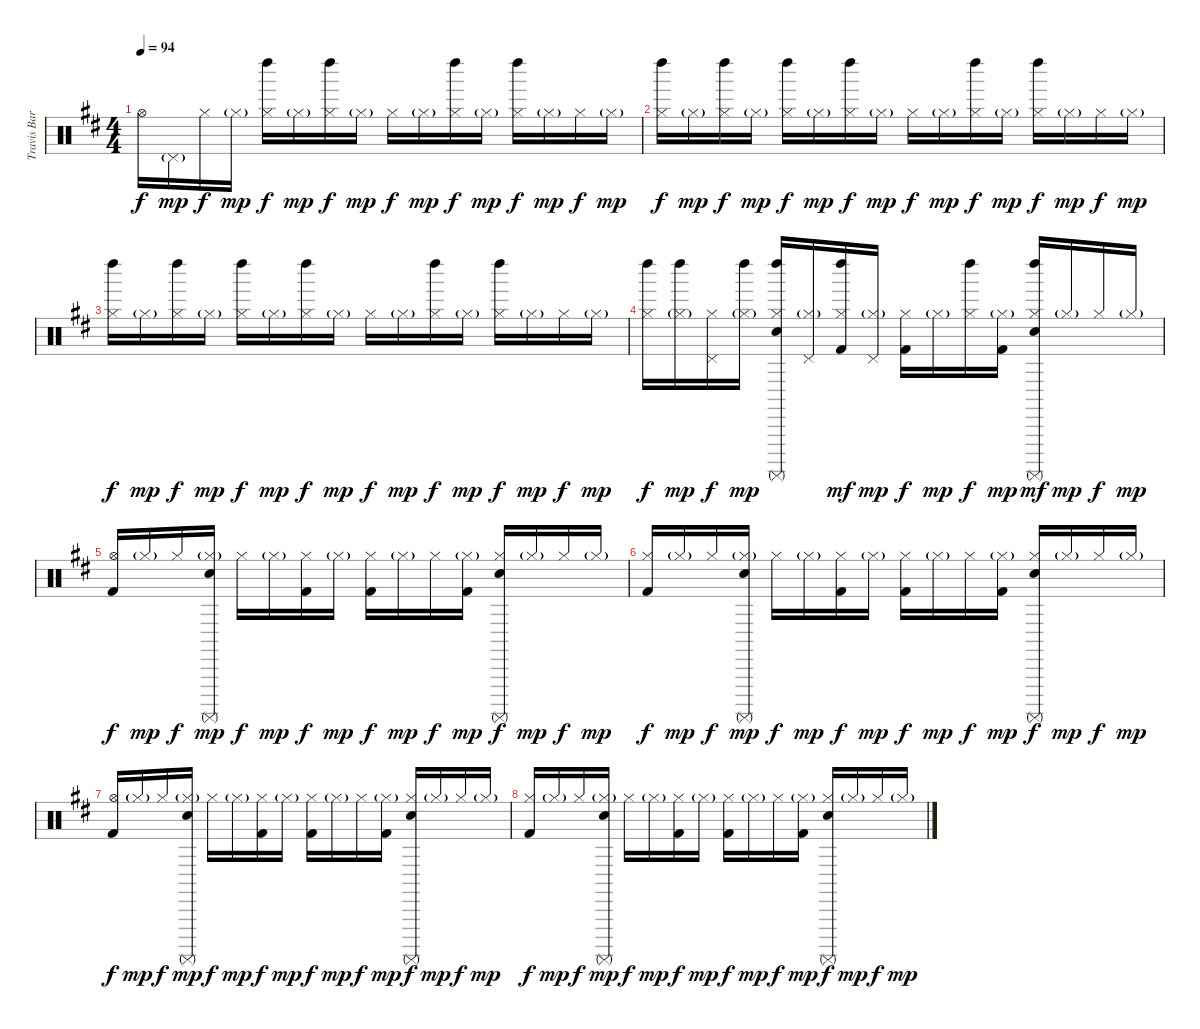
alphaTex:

\track ("Travis Barker" "Travis Bar") {instrument percussion}
\staff {score}
\articulation defaults
\ts (4 4)
\tempo 94
\clef neutral
\ks d "Hi-Hat (open)".16{dy f} "Pedal Hi-Hat (hit)"{g}.16{dy mp} "Hi-Hat (closed)".16{dy f} "Hi-Hat (closed)"{g}.16{dy mp}
("Left Maraca (hit)" "Hi-Hat (closed)").16{dy f} "Hi-Hat (closed)"{g}.16{dy mp} ("Left Maraca (hit)" "Hi-Hat (closed)").16{dy f} "Hi-Hat (closed)"{g}.16{dy mp} "Hi-Hat (closed)".16{dy f} "Hi-Hat (closed)"{g}.16{dy mp} ("Left Maraca (hit)" "Hi-Hat (closed)").16{dy f} "Hi-Hat (closed)"{g}.16{dy mp} ("Left Maraca (hit)" "Hi-Hat (closed)").16{dy f} "Hi-Hat (closed)"{g}.16{dy mp} "Hi-Hat (closed)".16{dy f} "Hi-Hat (closed)"{g}.16{dy mp} |
("Left Maraca (hit)" "Hi-Hat (closed)").16{dy f} "Hi-Hat (closed)"{g}.16{dy mp} ("Left Maraca (hit)" "Hi-Hat (closed)").16{dy f} "Hi-Hat (closed)"{g}.16{dy mp} ("Left Maraca (hit)" "Hi-Hat (closed)").16{dy f} "Hi-Hat (closed)"{g}.16{dy mp} ("Left Maraca (hit)" "Hi-Hat (closed)").16{dy f} "Hi-Hat (closed)"{g}.16{dy mp} "Hi-Hat (closed)".16{dy f} "Hi-Hat (closed)"{g}.16{dy mp} ("Left Maraca (hit)" "Hi-Hat (closed)").16{dy f} "Hi-Hat (closed)"{g}.16{dy mp} ("Left Maraca (hit)" "Hi-Hat (closed)").16{dy f} "Hi-Hat (closed)"{g}.16{dy mp} "Hi-Hat (closed)".16{dy f} "Hi-Hat (closed)"{g}.16{dy mp} |
("Left Maraca (hit)" "Hi-Hat (closed)").16{dy f} "Hi-Hat (closed)"{g}.16{dy mp} ("Left Maraca (hit)" "Hi-Hat (closed)").16{dy f} "Hi-Hat (closed)"{g}.16{dy mp} ("Left Maraca (hit)" "Hi-Hat (closed)").16{dy f} "Hi-Hat (closed)"{g}.16{dy mp} ("Left Maraca (hit)" "Hi-Hat (closed)").16{dy f} "Hi-Hat (closed)"{g}.16{dy mp} "Hi-Hat (closed)".16{dy f} "Hi-Hat (closed)"{g}.16{dy mp} ("Left Maraca (hit)" "Hi-Hat (closed)").16{dy f} "Hi-Hat (closed)"{g}.16{dy mp} ("Left Maraca (hit)" "Hi-Hat (closed)").16{dy f} "Hi-Hat (closed)"{g}.16{dy mp} "Hi-Hat (closed)".16{dy f} "Hi-Hat (closed)"{g}.16{dy mp} |
("Left Maraca (hit)" "Hi-Hat (closed)").16{dy f} ("Left Maraca (hit)" "Hi-Hat (closed)"{g}).16{dy mp} ("Pedal Hi-Hat (hit)" "Hi-Hat (closed)").16{dy f} ("Left Maraca (hit)" "Hi-Hat (closed)"{g}).16{dy mp} ("Left Maraca (hit)" "Hi-Hat (closed)" "Electric Snare (hit)" "Surdo (mute)").16 ("Pedal Hi-Hat (hit)" "Hi-Hat (closed)"{g}).16 ("Left Maraca (hit)" "Hi-Hat (closed)" "Kick (hit) 2").16{dy mf} ("Pedal Hi-Hat (hit)" "Hi-Hat (closed)"{g}).16{dy mp} ("Hi-Hat (closed)" "Kick (hit) 2").16{dy f} "Hi-Hat (closed)"{g}.16{dy mp} ("Left Maraca (hit)" "Hi-Hat (closed)").16{dy f} ("Hi-Hat (closed)"{g} "Kick (hit) 2").16{dy mp} ("Left Maraca (hit)" "Hi-Hat (closed)" "Electric Snare (hit)" "Surdo (mute)").16{dy mf} "Hi-Hat (closed)"{g}.16{dy mp} "Hi-Hat (closed)".16{dy f} "Hi-Hat (closed)"{g}.16{dy mp} |
("Hi-Hat (open)" "Kick (hit) 2").16{dy f} "Hi-Hat (closed)"{g}.16{dy mp} "Hi-Hat (closed)".16{dy f} ("Hi-Hat (closed)"{g} "Electric Snare (hit)" "Surdo (mute)").16{dy mp} "Hi-Hat (closed)".16{dy f} "Hi-Hat (closed)"{g}.16{dy mp} ("Hi-Hat (closed)" "Kick (hit) 2").16{dy f} "Hi-Hat (closed)"{g}.16{dy mp} ("Hi-Hat (closed)" "Kick (hit) 2").16{dy f} "Hi-Hat (closed)"{g}.16{dy mp} "Hi-Hat (closed)".16{dy f} ("Hi-Hat (closed)"{g} "Kick (hit) 2").16{dy mp} ("Hi-Hat (closed)" "Electric Snare (hit)" "Surdo (mute)").16{dy f} "Hi-Hat (closed)"{g}.16{dy mp} "Hi-Hat (closed)".16{dy f} "Hi-Hat (closed)"{g}.16{dy mp} |
("Hi-Hat (closed)" "Kick (hit) 2").16{dy f} "Hi-Hat (closed)"{g}.16{dy mp} "Hi-Hat (closed)".16{dy f} ("Hi-Hat (closed)"{g} "Electric Snare (hit)" "Surdo (mute)").16{dy mp} "Hi-Hat (closed)".16{dy f} "Hi-Hat (closed)"{g}.16{dy mp} ("Hi-Hat (closed)" "Kick (hit) 2").16{dy f} "Hi-Hat (closed)"{g}.16{dy mp} ("Hi-Hat (closed)" "Kick (hit) 2").16{dy f} "Hi-Hat (closed)"{g}.16{dy mp} "Hi-Hat (closed)".16{dy f} ("Hi-Hat (closed)"{g} "Kick (hit) 2").16{dy mp} ("Hi-Hat (closed)" "Electric Snare (hit)" "Surdo (mute)").16{dy f} "Hi-Hat (closed)"{g}.16{dy mp} "Hi-Hat (closed)".16{dy f} "Hi-Hat (closed)"{g}.16{dy mp} |
("Hi-Hat (open)" "Kick (hit) 2").16{dy f} "Hi-Hat (closed)"{g}.16{dy mp} "Hi-Hat (closed)".16{dy f} ("Hi-Hat (closed)"{g} "Electric Snare (hit)" "Surdo (mute)").16{dy mp} "Hi-Hat (closed)".16{dy f} "Hi-Hat (closed)"{g}.16{dy mp} ("Hi-Hat (closed)" "Kick (hit) 2").16{dy f} "Hi-Hat (closed)"{g}.16{dy mp} ("Hi-Hat (closed)" "Kick (hit) 2").16{dy f} "Hi-Hat (closed)"{g}.16{dy mp} "Hi-Hat (closed)".16{dy f} ("Hi-Hat (closed)"{g} "Kick (hit) 2").16{dy mp} ("Hi-Hat (closed)" "Electric Snare (hit)" "Surdo (mute)").16{dy f} "Hi-Hat (closed)"{g}.16{dy mp} "Hi-Hat (closed)".16{dy f} "Hi-Hat (closed)"{g}.16{dy mp} |
("Hi-Hat (closed)" "Kick (hit) 2").16{dy f} "Hi-Hat (closed)"{g}.16{dy mp} "Hi-Hat (closed)".16{dy f} ("Hi-Hat (closed)"{g} "Electric Snare (hit)" "Surdo (mute)").16{dy mp} "Hi-Hat (closed)".16{dy f} "Hi-Hat (closed)"{g}.16{dy mp} ("Hi-Hat (closed)" "Kick (hit) 2").16{dy f} "Hi-Hat (closed)"{g}.16{dy mp} ("Hi-Hat (closed)" "Kick (hit) 2").16{dy f} "Hi-Hat (closed)"{g}.16{dy mp} "Hi-Hat (closed)".16{dy f} ("Hi-Hat (closed)"{g} "Kick (hit) 2").16{dy mp} ("Hi-Hat (closed)" "Electric Snare (hit)" "Surdo (mute)").16{dy f} "Hi-Hat (closed)"{g}.16{dy mp} "Hi-Hat (closed)".16{dy f} "Hi-Hat (closed)"{g}.16{dy mp}
